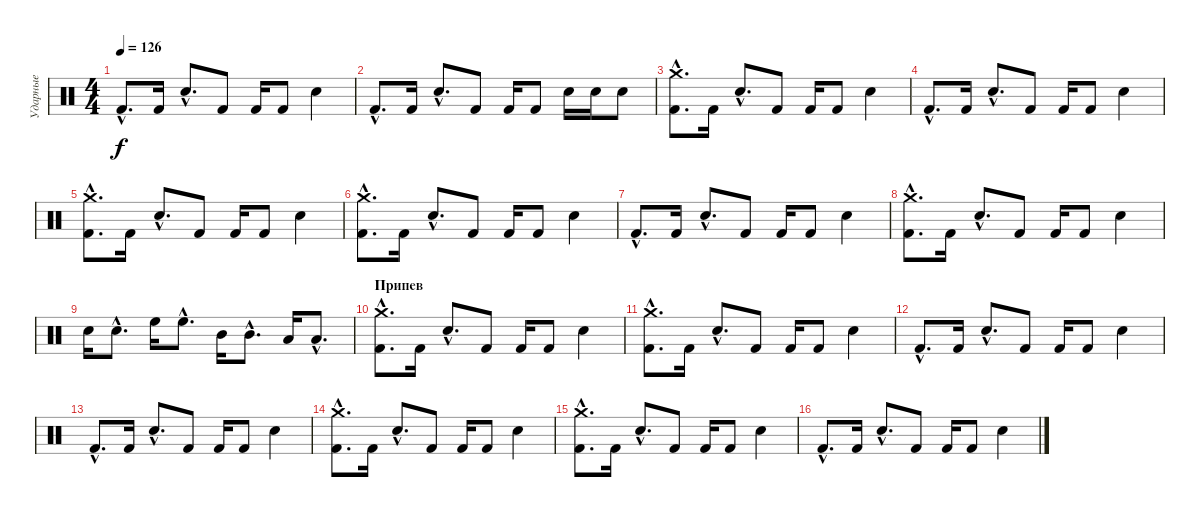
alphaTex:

\track ("Ударные" "Ударные") {instrument percussion}
\staff {score}
\articulation defaults
\ts (4 4)
\tempo 126
\clef neutral
\ks c "Kick (hit) 2"{hac}.8{d dy f} "Kick (hit) 2".16 "Snare (hit) 2"{hac}.8{d} "Kick (hit) 2".8 "Kick (hit) 2".16 "Kick (hit) 2".8 "Snare (hit) 2".4
|
"Kick (hit) 2"{hac}.8{d} "Kick (hit) 2".16 "Snare (hit) 2"{hac}.8{d} "Kick (hit) 2".8 "Kick (hit) 2".16 "Kick (hit) 2".8 "Snare (hit) 2".16 "Snare (hit) 2".16 "Snare (hit) 2".8 |
("Kick (hit) 2"{hac} "Crash medium (hit)"{hac}).8{d} "Kick (hit) 2".16 "Snare (hit) 2"{hac}.8{d} "Kick (hit) 2".8 "Kick (hit) 2".16 "Kick (hit) 2".8 "Snare (hit) 2".4 |
"Kick (hit) 2"{hac}.8{d} "Kick (hit) 2".16 "Snare (hit) 2"{hac}.8{d} "Kick (hit) 2".8 "Kick (hit) 2".16 "Kick (hit) 2".8 "Snare (hit) 2".4 |
("Kick (hit) 2"{hac} "Crash medium (hit)"{hac}).8{d} "Kick (hit) 2".16 "Snare (hit) 2"{hac}.8{d} "Kick (hit) 2".8 "Kick (hit) 2".16 "Kick (hit) 2".8 "Snare (hit) 2".4 |
("Kick (hit) 2"{hac} "Crash medium (hit)"{hac}).8{d} "Kick (hit) 2".16 "Snare (hit) 2"{hac}.8{d} "Kick (hit) 2".8 "Kick (hit) 2".16 "Kick (hit) 2".8 "Snare (hit) 2".4 |
"Kick (hit) 2"{hac}.8{d} "Kick (hit) 2".16 "Snare (hit) 2"{hac}.8{d} "Kick (hit) 2".8 "Kick (hit) 2".16 "Kick (hit) 2".8 "Snare (hit) 2".4 |
("Kick (hit) 2"{hac} "Crash medium (hit)"{hac}).8{d} "Kick (hit) 2".16 "Snare (hit) 2"{hac}.8{d} "Kick (hit) 2".8 "Kick (hit) 2".16 "Kick (hit) 2".8 "Snare (hit) 2".4 |
"Snare (hit) 2".16 "Snare (hit) 2"{hac}.8{d} "High Floor Tom (hit)".16 "High Floor Tom (hit)"{hac}.8{d} "Mid Tom (hit)".16 "Mid Tom (hit)"{hac}.8{d} "Low Floor Tom (hit)".16 "Low Floor Tom (hit)"{hac}.8{d} |
\section ("" "Припев")
("Kick (hit) 2"{hac} "Crash medium (hit)"{hac}).8{d} "Kick (hit) 2".16 "Snare (hit) 2"{hac}.8{d} "Kick (hit) 2".8 "Kick (hit) 2".16 "Kick (hit) 2".8 "Snare (hit) 2".4 |
("Kick (hit) 2"{hac} "Crash medium (hit)"{hac}).8{d} "Kick (hit) 2".16 "Snare (hit) 2"{hac}.8{d} "Kick (hit) 2".8 "Kick (hit) 2".16 "Kick (hit) 2".8 "Snare (hit) 2".4 |
"Kick (hit) 2"{hac}.8{d} "Kick (hit) 2".16 "Snare (hit) 2"{hac}.8{d} "Kick (hit) 2".8 "Kick (hit) 2".16 "Kick (hit) 2".8 "Snare (hit) 2".4 |
"Kick (hit) 2"{hac}.8{d} "Kick (hit) 2".16 "Snare (hit) 2"{hac}.8{d} "Kick (hit) 2".8 "Kick (hit) 2".16 "Kick (hit) 2".8 "Snare (hit) 2".4 |
("Kick (hit) 2"{hac} "Crash medium (hit)"{hac}).8{d} "Kick (hit) 2".16 "Snare (hit) 2"{hac}.8{d} "Kick (hit) 2".8 "Kick (hit) 2".16 "Kick (hit) 2".8 "Snare (hit) 2".4 |
("Kick (hit) 2"{hac} "Crash medium (hit)"{hac}).8{d} "Kick (hit) 2".16 "Snare (hit) 2"{hac}.8{d} "Kick (hit) 2".8 "Kick (hit) 2".16 "Kick (hit) 2".8 "Snare (hit) 2".4 |
"Kick (hit) 2"{hac}.8{d} "Kick (hit) 2".16 "Snare (hit) 2"{hac}.8{d} "Kick (hit) 2".8 "Kick (hit) 2".16 "Kick (hit) 2".8 "Snare (hit) 2".4
